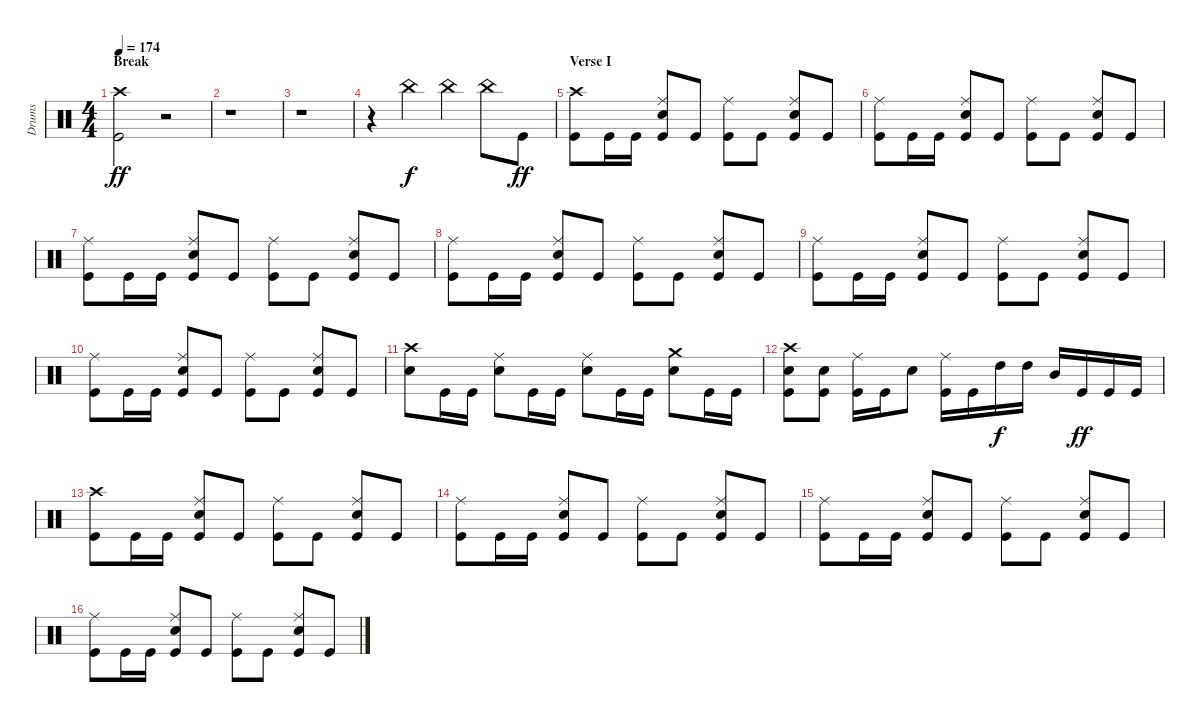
\track ("Drums" "Drums") {instrument percussion}
\staff {score}
\articulation defaults
\ts (4 4)
\section ("" "Break")
\tempo 174
\clef neutral
\ks c
("Crash high (hit)" "Kick (hit)").2{dy ff} r.2 |
r.1 |
r.1 |
r.4 "China (hit)".4{dy f} "China (hit)".4 "China (hit)".8 "Kick (hit)".8{dy ff} |
\section ("" "Verse I")
("Crash high (hit)" "Kick (hit)").8 "Kick (hit)".16 "Kick (hit)".16 ("Ride (middle)" "Electric Snare (hit)" "Kick (hit)").8 "Kick (hit)".8 ("Ride (middle)" "Kick (hit)").8 "Kick (hit)".8 ("Ride (middle)" "Electric Snare (hit)" "Kick (hit)").8 "Kick (hit)".8 |
("Ride (middle)" "Kick (hit)").8 "Kick (hit)".16 "Kick (hit)".16 ("Ride (middle)" "Electric Snare (hit)" "Kick (hit)").8 "Kick (hit)".8 ("Ride (middle)" "Kick (hit)").8 "Kick (hit)".8 ("Ride (middle)" "Electric Snare (hit)" "Kick (hit)").8 "Kick (hit)".8 |
("Ride (middle)" "Kick (hit)").8 "Kick (hit)".16 "Kick (hit)".16 ("Ride (middle)" "Electric Snare (hit)" "Kick (hit)").8 "Kick (hit)".8 ("Ride (middle)" "Kick (hit)").8 "Kick (hit)".8 ("Ride (middle)" "Electric Snare (hit)" "Kick (hit)").8 "Kick (hit)".8 |
("Ride (middle)" "Kick (hit)").8 "Kick (hit)".16 "Kick (hit)".16 ("Ride (middle)" "Electric Snare (hit)" "Kick (hit)").8 "Kick (hit)".8 ("Ride (middle)" "Kick (hit)").8 "Kick (hit)".8 ("Ride (middle)" "Electric Snare (hit)" "Kick (hit)").8 "Kick (hit)".8 |
("Ride (middle)" "Kick (hit)").8 "Kick (hit)".16 "Kick (hit)".16 ("Ride (middle)" "Electric Snare (hit)" "Kick (hit)").8 "Kick (hit)".8 ("Ride (middle)" "Kick (hit)").8 "Kick (hit)".8 ("Ride (middle)" "Electric Snare (hit)" "Kick (hit)").8 "Kick (hit)".8 |
("Ride (middle)" "Kick (hit)").8 "Kick (hit)".16 "Kick (hit)".16 ("Ride (middle)" "Electric Snare (hit)" "Kick (hit)").8 "Kick (hit)".8 ("Ride (middle)" "Kick (hit)").8 "Kick (hit)".8 ("Ride (middle)" "Electric Snare (hit)" "Kick (hit)").8 "Kick (hit)".8 |
("Crash high (hit)" "Electric Snare (hit)").8 "Kick (hit)".16 "Kick (hit)".16 ("Ride (middle)" "Electric Snare (hit)").8 "Kick (hit)".16 "Kick (hit)".16 ("Ride (middle)" "Electric Snare (hit)").8 "Kick (hit)".16 "Kick (hit)".16 ("Crash medium (hit)" "Electric Snare (hit)").8 "Kick (hit)".16 "Kick (hit)".16 |
("Crash high (hit)" "Electric Snare (hit)" "Kick (hit)").8 ("Electric Snare (hit)" "Kick (hit)").8 ("Ride (middle)" "Kick (hit)").16 "Kick (hit)".16 "Electric Snare (hit)".8 ("Ride (middle)" "Kick (hit)").16 "Kick (hit)".16 "High Tom (hit)".16{dy f} "High Tom (hit)".16 "Mid Tom (hit)".16 "Kick (hit)".16{dy ff} "Kick (hit)".16 "Kick (hit)".16 |
("Crash high (hit)" "Kick (hit)").8 "Kick (hit)".16 "Kick (hit)".16 ("Ride (middle)" "Electric Snare (hit)" "Kick (hit)").8 "Kick (hit)".8 ("Ride (middle)" "Kick (hit)").8 "Kick (hit)".8 ("Ride (middle)" "Electric Snare (hit)" "Kick (hit)").8 "Kick (hit)".8 |
("Ride (middle)" "Kick (hit)").8 "Kick (hit)".16 "Kick (hit)".16 ("Ride (middle)" "Electric Snare (hit)" "Kick (hit)").8 "Kick (hit)".8 ("Ride (middle)" "Kick (hit)").8 "Kick (hit)".8 ("Ride (middle)" "Electric Snare (hit)" "Kick (hit)").8 "Kick (hit)".8 |
("Ride (middle)" "Kick (hit)").8 "Kick (hit)".16 "Kick (hit)".16 ("Ride (middle)" "Electric Snare (hit)" "Kick (hit)").8 "Kick (hit)".8 ("Ride (middle)" "Kick (hit)").8 "Kick (hit)".8 ("Ride (middle)" "Electric Snare (hit)" "Kick (hit)").8 "Kick (hit)".8 |
("Ride (middle)" "Kick (hit)").8 "Kick (hit)".16 "Kick (hit)".16 ("Ride (middle)" "Electric Snare (hit)" "Kick (hit)").8 "Kick (hit)".8 ("Ride (middle)" "Kick (hit)").8 "Kick (hit)".8 ("Ride (middle)" "Electric Snare (hit)" "Kick (hit)").8 "Kick (hit)".8
